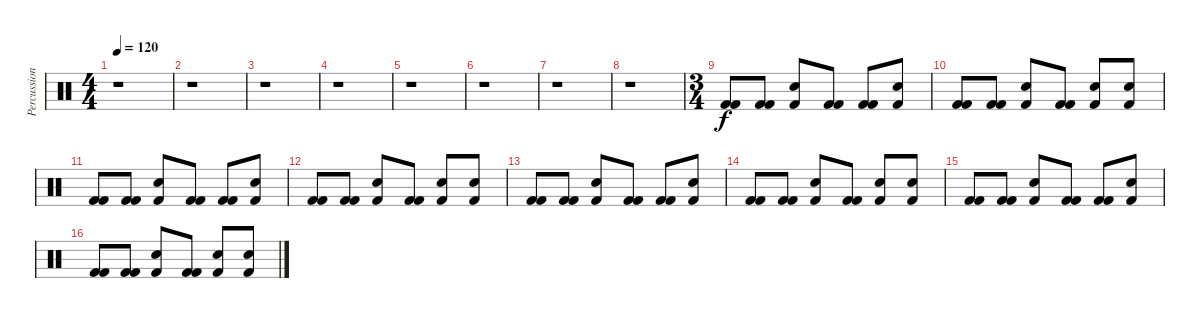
\track ("Percussion" "Percussion") {instrument percussion}
\staff {score}
\articulation defaults
\ts (4 4)
\tempo 120
\clef neutral
\ks c
r.1{dy f} |
r.1 |
r.1 |
r.1 |
r.1 |
r.1 |
r.1 |
r.1 |
\ts (3 4)
("Kick (hit) 2" "Kick (hit) 2").8 ("Kick (hit) 2" "Kick (hit) 2").8 ("Snare (hit) 2" "Kick (hit) 2").8 ("Kick (hit) 2" "Kick (hit) 2").8 ("Kick (hit) 2" "Kick (hit) 2").8 ("Snare (hit) 2" "Kick (hit) 2").8 |
("Kick (hit) 2" "Kick (hit) 2").8 ("Kick (hit) 2" "Kick (hit) 2").8 ("Snare (hit) 2" "Kick (hit) 2").8 ("Kick (hit) 2" "Kick (hit) 2").8 ("Snare (hit) 2" "Kick (hit) 2").8 ("Snare (hit) 2" "Kick (hit) 2").8 |
("Kick (hit) 2" "Kick (hit) 2").8 ("Kick (hit) 2" "Kick (hit) 2").8 ("Snare (hit) 2" "Kick (hit) 2").8 ("Kick (hit) 2" "Kick (hit) 2").8 ("Kick (hit) 2" "Kick (hit) 2").8 ("Snare (hit) 2" "Kick (hit) 2").8 |
("Kick (hit) 2" "Kick (hit) 2").8 ("Kick (hit) 2" "Kick (hit) 2").8 ("Snare (hit) 2" "Kick (hit) 2").8 ("Kick (hit) 2" "Kick (hit) 2").8 ("Snare (hit) 2" "Kick (hit) 2").8 ("Snare (hit) 2" "Kick (hit) 2").8 |
("Kick (hit) 2" "Kick (hit) 2").8 ("Kick (hit) 2" "Kick (hit) 2").8 ("Snare (hit) 2" "Kick (hit) 2").8 ("Kick (hit) 2" "Kick (hit) 2").8 ("Kick (hit) 2" "Kick (hit) 2").8 ("Snare (hit) 2" "Kick (hit) 2").8 |
("Kick (hit) 2" "Kick (hit) 2").8 ("Kick (hit) 2" "Kick (hit) 2").8 ("Snare (hit) 2" "Kick (hit) 2").8 ("Kick (hit) 2" "Kick (hit) 2").8 ("Snare (hit) 2" "Kick (hit) 2").8 ("Snare (hit) 2" "Kick (hit) 2").8 |
("Kick (hit) 2" "Kick (hit) 2").8 ("Kick (hit) 2" "Kick (hit) 2").8 ("Snare (hit) 2" "Kick (hit) 2").8 ("Kick (hit) 2" "Kick (hit) 2").8 ("Kick (hit) 2" "Kick (hit) 2").8 ("Snare (hit) 2" "Kick (hit) 2").8 |
("Kick (hit) 2" "Kick (hit) 2").8 ("Kick (hit) 2" "Kick (hit) 2").8 ("Snare (hit) 2" "Kick (hit) 2").8 ("Kick (hit) 2" "Kick (hit) 2").8 ("Snare (hit) 2" "Kick (hit) 2").8 ("Snare (hit) 2" "Kick (hit) 2").8
